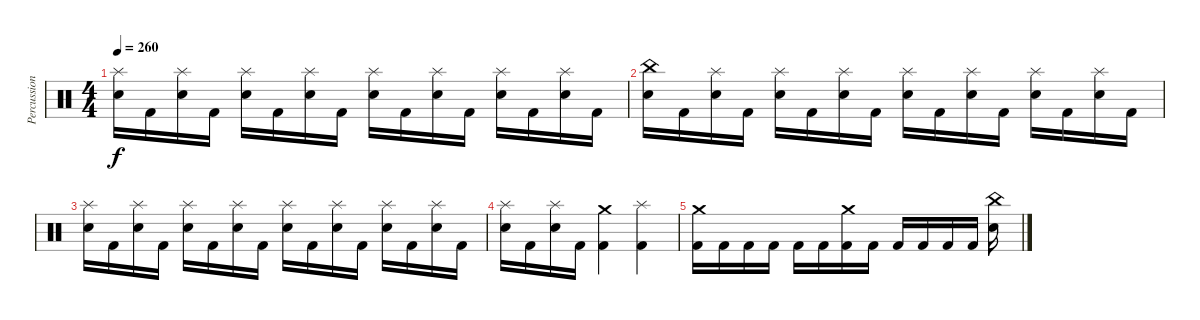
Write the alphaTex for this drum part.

\track ("Percussion" "Percussion") {instrument percussion}
\staff {score}
\articulation defaults
\ts (4 4)
\tempo 260
\clef neutral
\ks c
("Splash (hit)" "Snare (hit) 2").16{dy f} "Kick (hit) 2".16 ("Splash (hit)" "Snare (hit) 2").16 "Kick (hit) 2".16 ("Splash (hit)" "Snare (hit) 2").16 "Kick (hit) 2".16 ("Splash (hit)" "Snare (hit) 2").16 "Kick (hit) 2".16 ("Splash (hit)" "Snare (hit) 2").16 "Kick (hit) 2".16 ("Splash (hit)" "Snare (hit) 2").16 "Kick (hit) 2".16 ("Splash (hit)" "Snare (hit) 2").16 "Kick (hit) 2".16 ("Splash (hit)" "Snare (hit) 2").16 "Kick (hit) 2".16 |
("China (hit)" "Snare (hit) 2").16 "Kick (hit) 2".16 ("Splash (hit)" "Snare (hit) 2").16 "Kick (hit) 2".16 ("Splash (hit)" "Snare (hit) 2").16 "Kick (hit) 2".16 ("Splash (hit)" "Snare (hit) 2").16 "Kick (hit) 2".16 ("Splash (hit)" "Snare (hit) 2").16 "Kick (hit) 2".16 ("Splash (hit)" "Snare (hit) 2").16 "Kick (hit) 2".16 ("Splash (hit)" "Snare (hit) 2").16 "Kick (hit) 2".16 ("Splash (hit)" "Snare (hit) 2").16 "Kick (hit) 2".16 |
("Splash (hit)" "Snare (hit) 2").16 "Kick (hit) 2".16 ("Splash (hit)" "Snare (hit) 2").16 "Kick (hit) 2".16 ("Splash (hit)" "Snare (hit) 2").16 "Kick (hit) 2".16 ("Splash (hit)" "Snare (hit) 2").16 "Kick (hit) 2".16 ("Splash (hit)" "Snare (hit) 2").16 "Kick (hit) 2".16 ("Splash (hit)" "Snare (hit) 2").16 "Kick (hit) 2".16 ("Splash (hit)" "Snare (hit) 2").16 "Kick (hit) 2".16 ("Splash (hit)" "Snare (hit) 2").16 "Kick (hit) 2".16 |
("Splash (hit)" "Snare (hit) 2").16 "Kick (hit) 2".16 ("Splash (hit)" "Snare (hit) 2").16 "Kick (hit) 2".16 ("Crash medium (hit)" "Kick (hit) 2").4 ("Splash (hit)" "Kick (hit) 2").4 |
("Crash medium (hit)" "Kick (hit) 2").16 "Kick (hit) 2".16 "Kick (hit) 2".16 "Kick (hit) 2".16 "Kick (hit) 2".16 "Kick (hit) 2".16 ("Crash medium (hit)" "Kick (hit) 2").16 "Kick (hit) 2".16 "Kick (hit) 2".16 "Kick (hit) 2".16 "Kick (hit) 2".16 "Kick (hit) 2".16 ("Snare (hit) 2" "China (hit)").16
